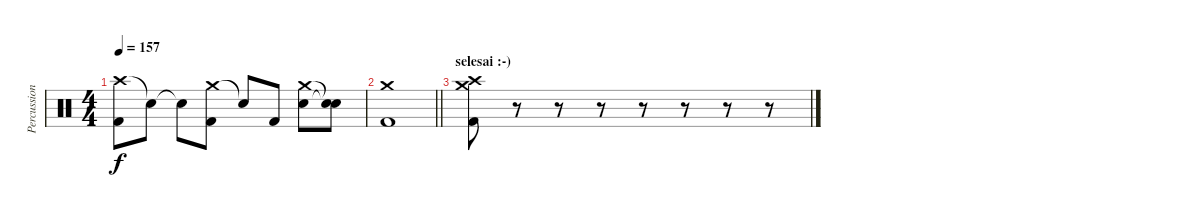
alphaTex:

\track ("Percussion" "Percussion") {instrument percussion}
\staff {score}
\articulation defaults
\ts (4 4)
\tempo 157
\clef neutral
\ks c
("Crash high (hit)" "Kick (hit) 2").8{dy f} "Snare (hit)"{t}.8 "Snare (hit)"{t}.8 ("Crash medium (hit)" "Kick (hit) 2").8 "Snare (hit)"{t}.8 "Kick (hit) 2".8 ("Crash medium (hit)" "Electric Snare (hit)").8 ("Snare (hit)"{t} "Snare (hit)"{t}).8 |
\barLineRight lightlight
("Crash medium (hit)" "Kick (hit) 2").1 |
\section ("" "selesai :-)")
("Crash high (hit)" "Kick (hit) 2" "Crash medium (hit)").8 r.8 r.8 r.8 r.8 r.8 r.8 r.8
